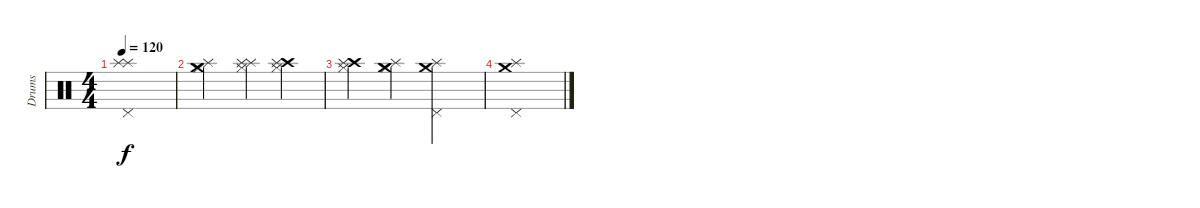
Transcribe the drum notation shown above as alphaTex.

\track ("Drums" "Drums") {instrument percussion}
\staff {score}
\articulation defaults
\ts (4 4)
\tempo 120
\clef neutral
\ks c
("Splash (hit)" "Splash (hit)" "Pedal Hi-Hat (hit)").1{dy f} |
("Crash medium (hit)" "Splash (hit)" "Hi-Hat (closed)").2 ("Splash (hit)" "Splash (hit)" "Hi-Hat (closed)").4 ("Crash high (hit)" "Splash (hit)" "Hi-Hat (closed)").4 |
("Crash high (hit)" "Splash (hit)" "Hi-Hat (closed)").4 ("Crash medium (hit)" "Splash (hit)" "Hi-Hat (closed)").4 ("Crash medium (hit)" "Splash (hit)" "Pedal Hi-Hat (hit)").2 |
("Crash medium (hit)" "Splash (hit)" "Pedal Hi-Hat (hit)").1
